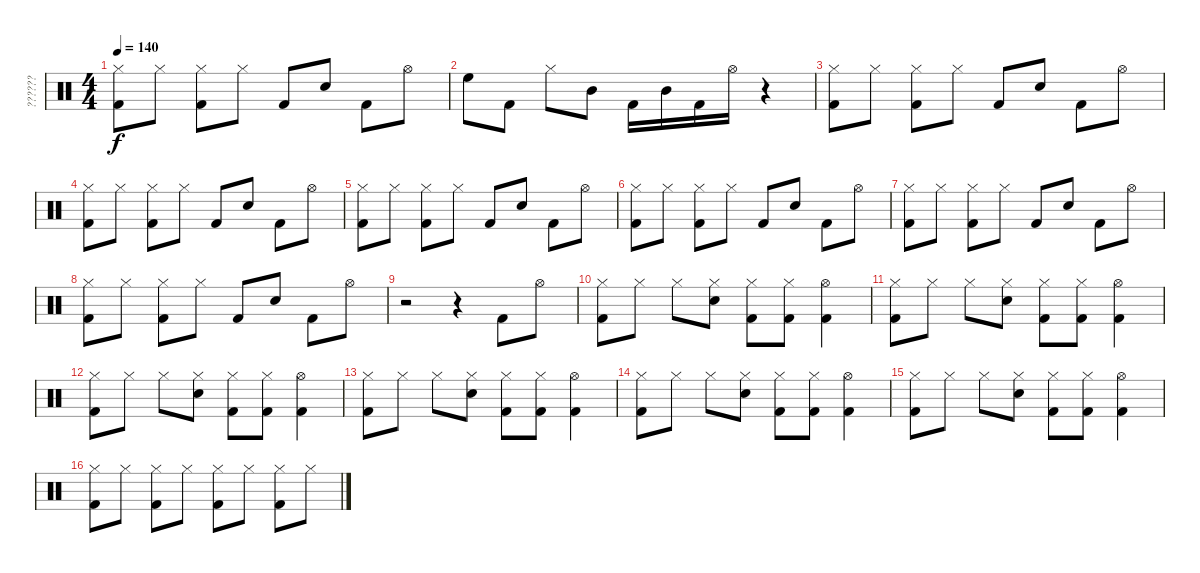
\track ("??????" "??????") {instrument percussion}
\staff {score}
\articulation defaults
\ts (4 4)
\tempo 140
\clef neutral
\ks c
("Hi-Hat (closed)" "Kick (hit) 2").8{dy f} "Hi-Hat (closed)".8 ("Hi-Hat (closed)" "Kick (hit) 2").8 "Hi-Hat (closed)".8 "Kick (hit) 2".8 "Snare (hit) 2".8 "Kick (hit) 2".8 "Hi-Hat (open)".8 |
"High Floor Tom (hit)".8 "Kick (hit) 2".8 "Hi-Hat (closed)".8 "Mid Tom (hit)".8 "Kick (hit) 2".16 "Mid Tom (hit)".16 "Kick (hit) 2".16 "Hi-Hat (open)".16 r.4 |
("Hi-Hat (closed)" "Kick (hit) 2").8 "Hi-Hat (closed)".8 ("Hi-Hat (closed)" "Kick (hit) 2").8 "Hi-Hat (closed)".8 "Kick (hit) 2".8 "Snare (hit) 2".8 "Kick (hit) 2".8 "Hi-Hat (open)".8 |
("Hi-Hat (closed)" "Kick (hit) 2").8 "Hi-Hat (closed)".8 ("Hi-Hat (closed)" "Kick (hit) 2").8 "Hi-Hat (closed)".8 "Kick (hit) 2".8 "Snare (hit) 2".8 "Kick (hit) 2".8 "Hi-Hat (open)".8 |
("Hi-Hat (closed)" "Kick (hit) 2").8 "Hi-Hat (closed)".8 ("Hi-Hat (closed)" "Kick (hit) 2").8 "Hi-Hat (closed)".8 "Kick (hit) 2".8 "Snare (hit) 2".8 "Kick (hit) 2".8 "Hi-Hat (open)".8 |
("Hi-Hat (closed)" "Kick (hit) 2").8 "Hi-Hat (closed)".8 ("Hi-Hat (closed)" "Kick (hit) 2").8 "Hi-Hat (closed)".8 "Kick (hit) 2".8 "Snare (hit) 2".8 "Kick (hit) 2".8 "Hi-Hat (open)".8 |
("Hi-Hat (closed)" "Kick (hit) 2").8 "Hi-Hat (closed)".8 ("Hi-Hat (closed)" "Kick (hit) 2").8 "Hi-Hat (closed)".8 "Kick (hit) 2".8 "Snare (hit) 2".8 "Kick (hit) 2".8 "Hi-Hat (open)".8 |
("Hi-Hat (closed)" "Kick (hit) 2").8 "Hi-Hat (closed)".8 ("Hi-Hat (closed)" "Kick (hit) 2").8 "Hi-Hat (closed)".8 "Kick (hit) 2".8 "Snare (hit) 2".8 "Kick (hit) 2".8 "Hi-Hat (open)".8 |
r.2 r.4 "Kick (hit) 2".8 "Hi-Hat (open)".8 |
("Hi-Hat (closed)" "Kick (hit) 2").8 "Hi-Hat (closed)".8 "Hi-Hat (closed)".8 ("Hi-Hat (closed)" "Snare (hit) 2").8 ("Hi-Hat (closed)" "Kick (hit) 2").8 ("Hi-Hat (closed)" "Kick (hit) 2").8 ("Hi-Hat (open)" "Kick (hit) 2").4 |
("Hi-Hat (closed)" "Kick (hit) 2").8 "Hi-Hat (closed)".8 "Hi-Hat (closed)".8 ("Hi-Hat (closed)" "Snare (hit) 2").8 ("Hi-Hat (closed)" "Kick (hit) 2").8 ("Hi-Hat (closed)" "Kick (hit) 2").8 ("Hi-Hat (open)" "Kick (hit) 2").4 |
("Hi-Hat (closed)" "Kick (hit) 2").8 "Hi-Hat (closed)".8 "Hi-Hat (closed)".8 ("Hi-Hat (closed)" "Snare (hit) 2").8 ("Hi-Hat (closed)" "Kick (hit) 2").8 ("Hi-Hat (closed)" "Kick (hit) 2").8 ("Hi-Hat (open)" "Kick (hit) 2").4 |
("Hi-Hat (closed)" "Kick (hit) 2").8 "Hi-Hat (closed)".8 "Hi-Hat (closed)".8 ("Hi-Hat (closed)" "Snare (hit) 2").8 ("Hi-Hat (closed)" "Kick (hit) 2").8 ("Hi-Hat (closed)" "Kick (hit) 2").8 ("Hi-Hat (open)" "Kick (hit) 2").4 |
("Hi-Hat (closed)" "Kick (hit) 2").8 "Hi-Hat (closed)".8 "Hi-Hat (closed)".8 ("Hi-Hat (closed)" "Snare (hit) 2").8 ("Hi-Hat (closed)" "Kick (hit) 2").8 ("Hi-Hat (closed)" "Kick (hit) 2").8 ("Hi-Hat (open)" "Kick (hit) 2").4 |
("Hi-Hat (closed)" "Kick (hit) 2").8 "Hi-Hat (closed)".8 "Hi-Hat (closed)".8 ("Hi-Hat (closed)" "Snare (hit) 2").8 ("Hi-Hat (closed)" "Kick (hit) 2").8 ("Hi-Hat (closed)" "Kick (hit) 2").8 ("Hi-Hat (open)" "Kick (hit) 2").4 |
("Hi-Hat (closed)" "Kick (hit) 2").8 "Hi-Hat (closed)".8 ("Hi-Hat (closed)" "Kick (hit) 2").8 "Hi-Hat (closed)".8 ("Hi-Hat (closed)" "Kick (hit) 2").8 "Hi-Hat (closed)".8 ("Hi-Hat (closed)" "Kick (hit) 2").8 "Hi-Hat (closed)".8
